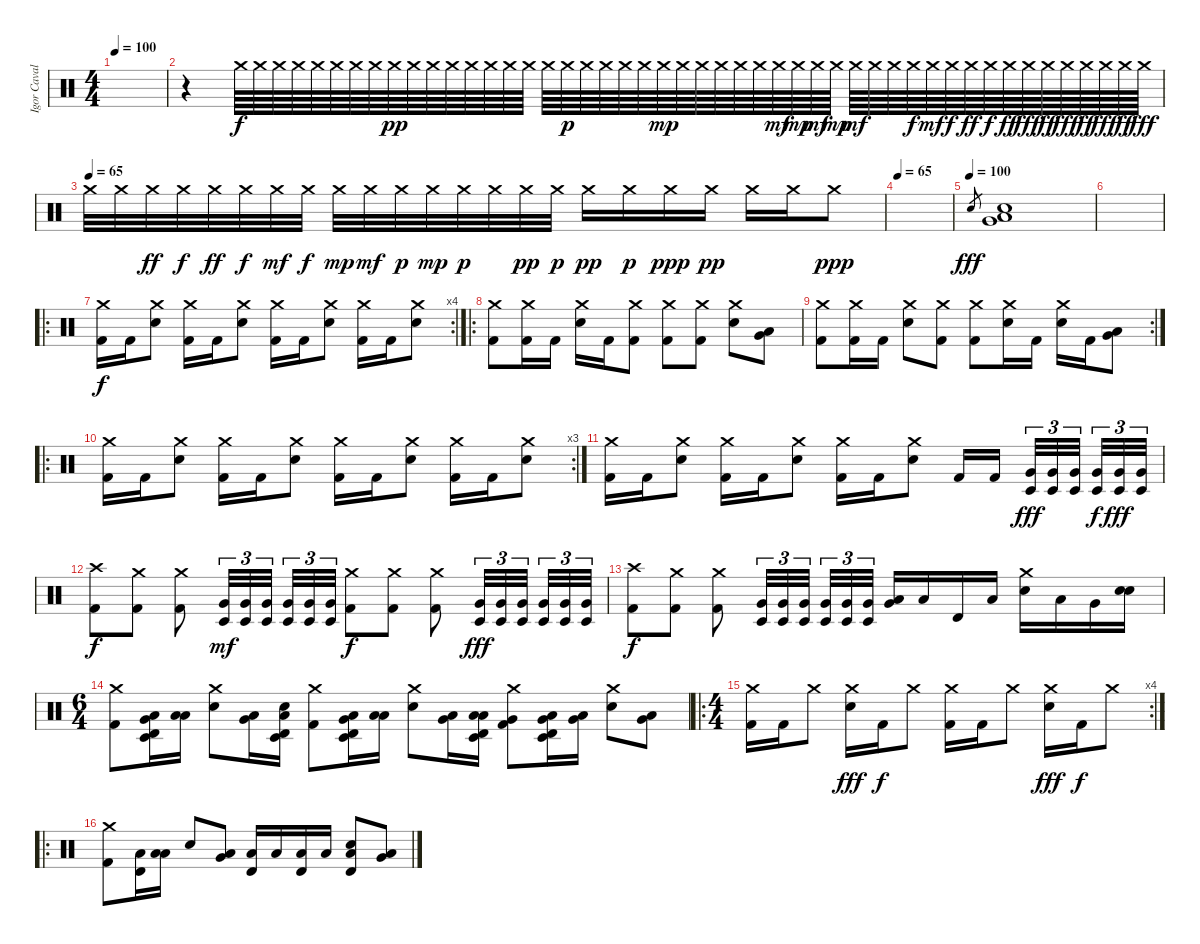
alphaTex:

\track ("Igor Cavalera" "Igor Caval") {instrument percussion}
\staff {score}
\articulation defaults
\ts (4 4)
\tempo 100
\tempo 55
\tempo 100
\clef neutral
\ks c
|
r.4 "Crash medium (hit)".64 "Crash medium (hit)".64 "Crash medium (hit)".64 "Crash medium (hit)".64 "Crash medium (hit)".64 "Crash medium (hit)".64 "Crash medium (hit)".64 "Crash medium (hit)".64 "Crash medium (hit)".64{dy pp} "Crash medium (hit)".64 "Crash medium (hit)".64 "Crash medium (hit)".64 "Crash medium (hit)".64 "Crash medium (hit)".64 "Crash medium (hit)".64 "Crash medium (hit)".64 "Crash medium (hit)".64 "Crash medium (hit)".64{dy p} "Crash medium (hit)".64 "Crash medium (hit)".64 "Crash medium (hit)".64 "Crash medium (hit)".64 "Crash medium (hit)".64{dy mp} "Crash medium (hit)".64 "Crash medium (hit)".64 "Crash medium (hit)".64 "Crash medium (hit)".64 "Crash medium (hit)".64 "Crash medium (hit)".64{dy mf} "Crash medium (hit)".64{dy mp} "Crash medium (hit)".64{dy mf} "Crash medium (hit)".64{dy mp} "Crash medium (hit)".64{dy mf} "Crash medium (hit)".64 "Crash medium (hit)".64 "Crash medium (hit)".64{dy f} "Crash medium (hit)".64{dy mf} "Crash medium (hit)".64{dy f} "Crash medium (hit)".64{dy ff} "Crash medium (hit)".64{dy f} "Crash medium (hit)".64{dy ff} "Crash medium (hit)".64{dy fff} "Crash medium (hit)".64{dy ff} "Crash medium (hit)".64{dy fff} "Crash medium (hit)".64{dy ff} "Crash medium (hit)".64{dy fff} "Crash medium (hit)".64{dy ff} "Crash medium (hit)".64{dy fff} |
\tempo (65)
"Crash medium (hit)".32 "Crash medium (hit)".32 "Crash medium (hit)".32{dy ff} "Crash medium (hit)".32{dy f} "Crash medium (hit)".32{dy ff} "Crash medium (hit)".32{dy f} "Crash medium (hit)".32{dy mf} "Crash medium (hit)".32{dy f} "Crash medium (hit)".32{dy mp} "Crash medium (hit)".32{dy mf} "Crash medium (hit)".32{dy p} "Crash medium (hit)".32{dy mp} "Crash medium (hit)".32{dy p} "Crash medium (hit)".32 "Crash medium (hit)".32{dy pp} "Crash medium (hit)".32{dy p} "Crash medium (hit)".16{dy pp} "Crash medium (hit)".16{dy p} "Crash medium (hit)".16{dy ppp} "Crash medium (hit)".16{dy pp} "Crash medium (hit)".16 "Crash medium (hit)".16 "Crash medium (hit)".8{dy ppp} |
\tempo 65
|
\tempo (100)
"Electric Snare (hit)".8{gr dy fff} ("Very Low Tom (hit)" "Electric Snare (hit)" "Low Floor Tom (hit)").1 |
|
\ro
\rc 4
("Crash medium (hit)" "Kick (hit) 2").16{dy f} "Kick (hit) 2".16 ("Crash medium (hit)" "Electric Snare (hit)").8 ("Crash medium (hit)" "Kick (hit) 2").16 "Kick (hit) 2".16 ("Crash medium (hit)" "Electric Snare (hit)").8 ("Crash medium (hit)" "Kick (hit) 2").16 "Kick (hit) 2".16 ("Crash medium (hit)" "Electric Snare (hit)").8 ("Crash medium (hit)" "Kick (hit) 2").16 "Kick (hit) 2".16 ("Crash medium (hit)" "Electric Snare (hit)").8 |
\ro
("Kick (hit) 2" "Crash medium (hit)").8 ("Crash medium (hit)" "Kick (hit) 2").16 "Kick (hit) 2".16 ("Crash medium (hit)" "Electric Snare (hit)").16 "Kick (hit) 2".16 ("Crash medium (hit)" "Kick (hit) 2").8 ("Crash medium (hit)" "Kick (hit) 2").8 ("Crash medium (hit)" "Kick (hit) 2").8 ("Crash medium (hit)" "Electric Snare (hit)").8 ("Very Low Tom (hit)" "Low Tom (hit)").8 |
\rc 2
("Kick (hit) 2" "Crash medium (hit)").8 ("Crash medium (hit)" "Kick (hit) 2").16 "Kick (hit) 2".16 ("Crash medium (hit)" "Electric Snare (hit)").8 ("Crash medium (hit)" "Kick (hit) 2").8 ("Crash medium (hit)" "Kick (hit) 2").8 ("Crash medium (hit)" "Electric Snare (hit)").16 "Kick (hit) 2".16 ("Crash medium (hit)" "Electric Snare (hit)").16 "Kick (hit) 2".16 ("Very Low Tom (hit)" "Low Tom (hit)").8 |
\ro
\rc 3
("Crash medium (hit)" "Kick (hit) 2").16 "Kick (hit) 2".16 ("Crash medium (hit)" "Electric Snare (hit)").8 ("Crash medium (hit)" "Kick (hit) 2").16 "Kick (hit) 2".16 ("Crash medium (hit)" "Electric Snare (hit)").8 ("Crash medium (hit)" "Kick (hit) 2").16 "Kick (hit) 2".16 ("Crash medium (hit)" "Electric Snare (hit)").8 ("Crash medium (hit)" "Kick (hit) 2").16 "Kick (hit) 2".16 ("Crash medium (hit)" "Electric Snare (hit)").8 |
("Crash medium (hit)" "Kick (hit) 2").16 "Kick (hit) 2".16 ("Crash medium (hit)" "Electric Snare (hit)").8 ("Crash medium (hit)" "Kick (hit) 2").16 "Kick (hit) 2".16 ("Crash medium (hit)" "Electric Snare (hit)").8 ("Crash medium (hit)" "Kick (hit) 2").16 "Kick (hit) 2".16 ("Crash medium (hit)" "Electric Snare (hit)").8 "Kick (hit) 2".16 "Kick (hit) 2".16 ("Very Low Tom (hit)" "Timbale low (hit)").32{tu (3 2) dy fff} ("Very Low Tom (hit)" "Timbale low (hit)").32{tu (3 2)} ("Very Low Tom (hit)" "Timbale low (hit)").32{tu (3 2)} ("Very Low Tom (hit)" "Timbale low (hit)").32{tu (3 2) dy f} ("Very Low Tom (hit)" "Timbale low (hit)").32{tu (3 2) dy fff} ("Very Low Tom (hit)" "Timbale low (hit)").32{tu (3 2)} |
("Crash high (hit)" "Kick (hit) 2").8{dy f} ("Crash medium (hit)" "Kick (hit) 2").8 ("Crash medium (hit)" "Kick (hit) 2").8 ("Very Low Tom (hit)" "Timbale low (hit)").32{tu (3 2) dy mf} ("Very Low Tom (hit)" "Timbale low (hit)").32{tu (3 2)} ("Very Low Tom (hit)" "Timbale low (hit)").32{tu (3 2)} ("Very Low Tom (hit)" "Timbale low (hit)").32{tu (3 2)} ("Very Low Tom (hit)" "Timbale low (hit)").32{tu (3 2)} ("Very Low Tom (hit)" "Timbale low (hit)").32{tu (3 2)} ("Crash medium (hit)" "Kick (hit) 2").8{dy f} ("Crash medium (hit)" "Kick (hit) 2").8 ("Crash medium (hit)" "Kick (hit) 2").8 ("Timbale low (hit)" "Very Low Tom (hit)").32{tu (3 2) dy fff} ("Timbale low (hit)" "Very Low Tom (hit)").32{tu (3 2)} ("Timbale low (hit)" "Very Low Tom (hit)").32{tu (3 2)} ("Timbale low (hit)" "Very Low Tom (hit)").32{tu (3 2)} ("Timbale low (hit)" "Very Low Tom (hit)").32{tu (3 2)} ("Timbale low (hit)" "Very Low Tom (hit)").32{tu (3 2)} |
("Crash high (hit)" "Kick (hit) 2").8{dy f} ("Crash medium (hit)" "Kick (hit) 2").8 ("Crash medium (hit)" "Kick (hit) 2").8 ("Very Low Tom (hit)" "Timbale low (hit)").32{tu (3 2)} ("Very Low Tom (hit)" "Timbale low (hit)").32{tu (3 2)} ("Very Low Tom (hit)" "Timbale low (hit)").32{tu (3 2)} ("Very Low Tom (hit)" "Timbale low (hit)").32{tu (3 2)} ("Very Low Tom (hit)" "Timbale low (hit)").32{tu (3 2)} ("Very Low Tom (hit)" "Timbale low (hit)").32{tu (3 2)} ("Very Low Tom (hit)" "Low Tom (hit)").16 "Low Tom (hit)".16 "Timbale high (hit)".16 "Low Tom (hit)".16 ("Electric Snare (hit)" "Crash medium (hit)").16 "Low Tom (hit)".16 "Very Low Tom (hit)".16 ("Electric Snare (hit)" "Electric Snare (hit)").16 |
\ts (6 4)
("Kick (hit) 2" "Crash medium (hit)").8 ("Timbale low (hit)" "Timbale high (hit)" "Low Tom (hit)" "Very Low Tom (hit)").16 ("Low Tom (hit)" "Low Tom (hit)").16 ("Electric Snare (hit)" "Crash medium (hit)").8 ("Low Tom (hit)" "Very Low Tom (hit)").16 ("Timbale low (hit)" "Timbale high (hit)" "Low Tom (hit)" "Electric Snare (hit)").16 ("Crash medium (hit)" "Kick (hit) 2").8 ("Timbale low (hit)" "Timbale high (hit)" "Low Tom (hit)" "Very Low Tom (hit)").16 ("Low Tom (hit)" "Low Tom (hit)").16 ("Electric Snare (hit)" "Crash medium (hit)").8 ("Low Tom (hit)" "Very Low Tom (hit)").16 ("Timbale high (hit)" "Timbale low (hit)" "Low Tom (hit)" "Low Tom (hit)").16 ("Crash medium (hit)" "Very Low Tom (hit)" "Kick (hit) 2").8 ("Timbale low (hit)" "Timbale high (hit)" "Low Tom (hit)" "Very Low Tom (hit)").16 ("Low Tom (hit)" "Very Low Tom (hit)").16 ("Electric Snare (hit)" "Crash medium (hit)").8 ("Very Low Tom (hit)" "Low Tom (hit)").8 |
\ro
\rc 4
\ts (4 4)
("Crash medium (hit)" "Kick (hit) 2").16 "Kick (hit) 2".16 "Crash medium (hit)".8 ("Crash medium (hit)" "Electric Snare (hit)").16{dy fff} "Kick (hit) 2".16{dy f} "Crash medium (hit)".8 ("Crash medium (hit)" "Kick (hit) 2").16 "Kick (hit) 2".16 "Crash medium (hit)".8 ("Crash medium (hit)" "Electric Snare (hit)").16{dy fff} "Kick (hit) 2".16{dy f} "Crash medium (hit)".8 |
\ro
("Kick (hit) 2" "Crash medium (hit)").8 ("Timbale high (hit)" "Low Tom (hit)").16 ("Low Tom (hit)" "Low Tom (hit)").16 "Electric Snare (hit)".8 ("Very Low Tom (hit)" "Low Tom (hit)").8 ("Timbale high (hit)" "Low Tom (hit)").16 "Low Tom (hit)".16 ("Timbale high (hit)" "Low Tom (hit)").16 "Low Tom (hit)".16 ("Electric Snare (hit)" "Low Tom (hit)" "Timbale high (hit)").8 ("Low Tom (hit)" "Very Low Tom (hit)").8
